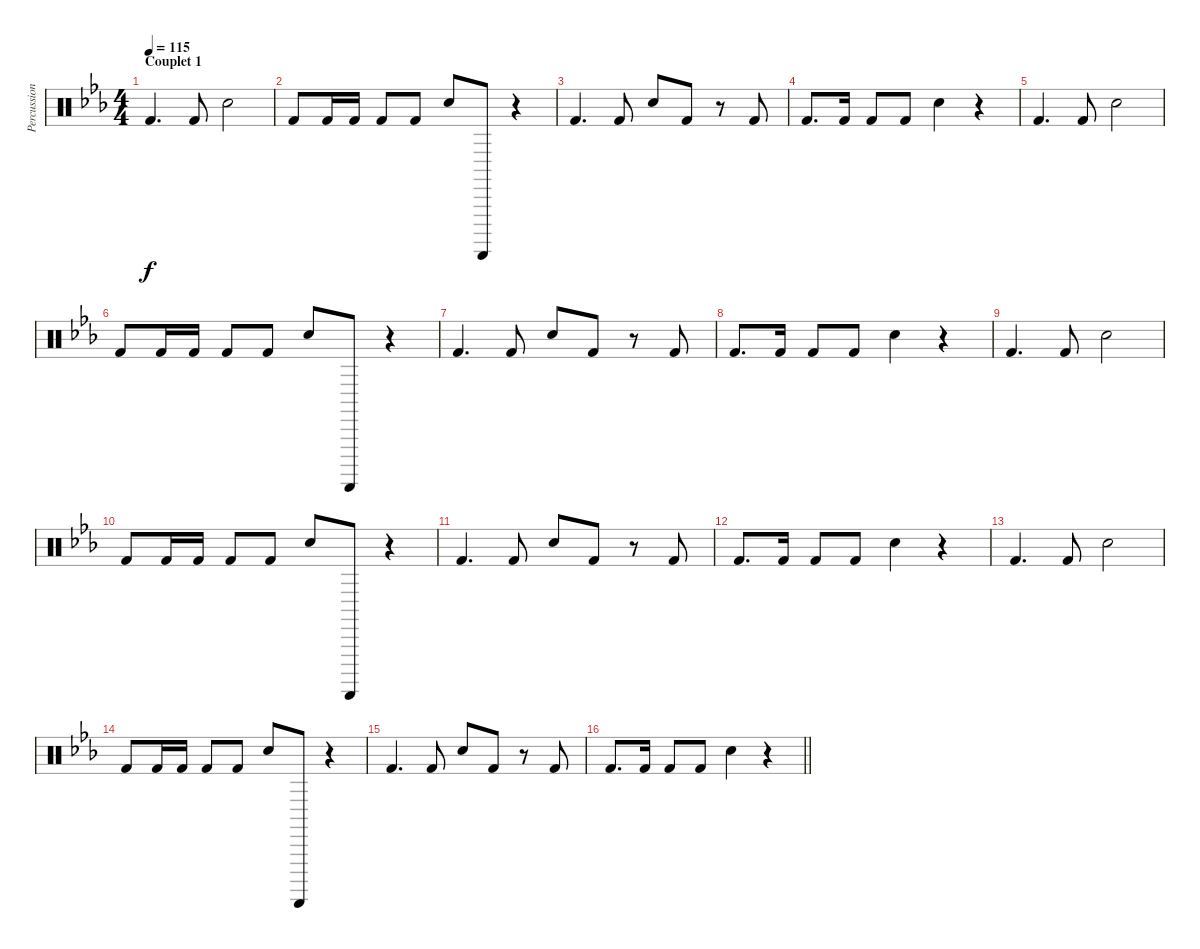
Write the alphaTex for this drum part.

\track ("Percussions" "Percussion") {instrument percussion}
\staff {score}
\articulation defaults
\ts (4 4)
\section ("" "Couplet 1")
\tempo 115
\clef neutral
\ks eb "Kick (hit) 2".4{d dy f} "Kick (hit) 2".8 "Hand Clap (hit)".2
|
"Kick (hit) 2".8 "Kick (hit) 2".16 "Kick (hit) 2".16 "Kick (hit) 2".8 "Kick (hit) 2".8 "Hand Clap (hit)".8 "Guiro (scrap-return)".8 r.4 |
"Kick (hit) 2".4{d} "Kick (hit) 2".8 "Hand Clap (hit)".8 "Kick (hit) 2".8 r.8 "Kick (hit) 2".8 |
"Kick (hit) 2".8{d} "Kick (hit) 2".16 "Kick (hit) 2".8 "Kick (hit) 2".8 "Hand Clap (hit)".4 r.4 |
"Kick (hit) 2".4{d} "Kick (hit) 2".8 "Hand Clap (hit)".2 |
"Kick (hit) 2".8 "Kick (hit) 2".16 "Kick (hit) 2".16 "Kick (hit) 2".8 "Kick (hit) 2".8 "Hand Clap (hit)".8 "Guiro (scrap-return)".8 r.4 |
"Kick (hit) 2".4{d} "Kick (hit) 2".8 "Hand Clap (hit)".8 "Kick (hit) 2".8 r.8 "Kick (hit) 2".8 |
"Kick (hit) 2".8{d} "Kick (hit) 2".16 "Kick (hit) 2".8 "Kick (hit) 2".8 "Hand Clap (hit)".4 r.4 |
"Kick (hit) 2".4{d} "Kick (hit) 2".8 "Hand Clap (hit)".2 |
"Kick (hit) 2".8 "Kick (hit) 2".16 "Kick (hit) 2".16 "Kick (hit) 2".8 "Kick (hit) 2".8 "Hand Clap (hit)".8 "Guiro (scrap-return)".8 r.4 |
"Kick (hit) 2".4{d} "Kick (hit) 2".8 "Hand Clap (hit)".8 "Kick (hit) 2".8 r.8 "Kick (hit) 2".8 |
"Kick (hit) 2".8{d} "Kick (hit) 2".16 "Kick (hit) 2".8 "Kick (hit) 2".8 "Hand Clap (hit)".4 r.4 |
"Kick (hit) 2".4{d} "Kick (hit) 2".8 "Hand Clap (hit)".2 |
"Kick (hit) 2".8 "Kick (hit) 2".16 "Kick (hit) 2".16 "Kick (hit) 2".8 "Kick (hit) 2".8 "Hand Clap (hit)".8 "Guiro (scrap-return)".8 r.4 |
"Kick (hit) 2".4{d} "Kick (hit) 2".8 "Hand Clap (hit)".8 "Kick (hit) 2".8 r.8 "Kick (hit) 2".8 |
\barLineRight lightlight "Kick (hit) 2".8{d} "Kick (hit) 2".16 "Kick (hit) 2".8 "Kick (hit) 2".8 "Hand Clap (hit)".4
r.4
